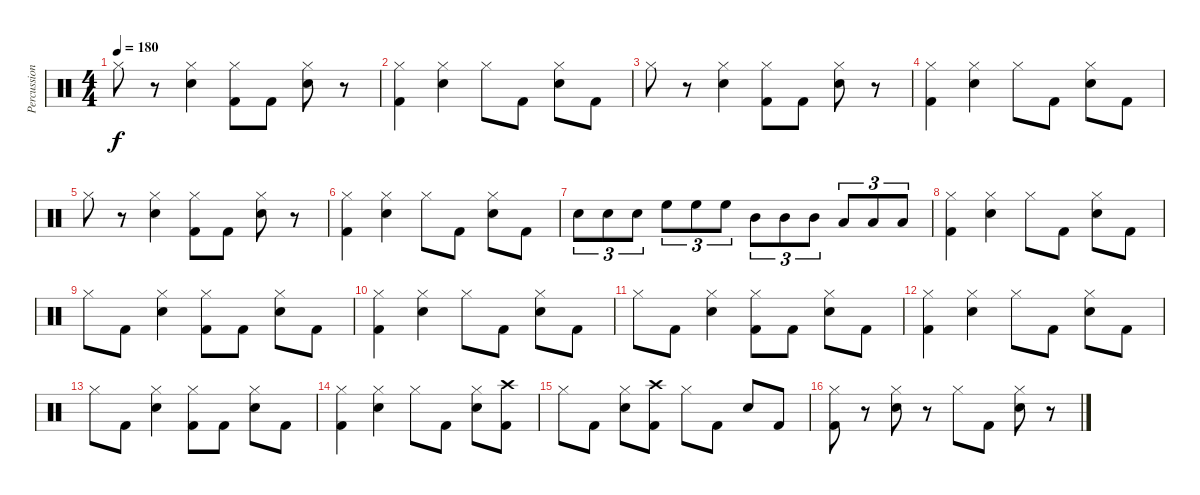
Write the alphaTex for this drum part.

\track ("Percussion" "Percussion") {instrument percussion}
\staff {score}
\articulation defaults
\ts (4 4)
\tempo 180
\clef neutral
\ks c "Hi-Hat (closed)".8{dy f}
r.8 ("Hi-Hat (closed)" "Snare (hit) 2").4 ("Hi-Hat (closed)" "Kick (hit) 2").8 "Kick (hit) 2".8 ("Hi-Hat (closed)" "Snare (hit) 2").8 r.8 |
("Hi-Hat (closed)" "Kick (hit) 2").4 ("Hi-Hat (closed)" "Snare (hit) 2").4 "Hi-Hat (closed)".8 "Kick (hit) 2".8 ("Hi-Hat (closed)" "Snare (hit) 2").8 "Kick (hit) 2".8 |
"Hi-Hat (closed)".8 r.8 ("Hi-Hat (closed)" "Snare (hit) 2").4 ("Hi-Hat (closed)" "Kick (hit) 2").8 "Kick (hit) 2".8 ("Hi-Hat (closed)" "Snare (hit) 2").8 r.8 |
("Hi-Hat (closed)" "Kick (hit) 2").4 ("Hi-Hat (closed)" "Snare (hit) 2").4 "Hi-Hat (closed)".8 "Kick (hit) 2".8 ("Hi-Hat (closed)" "Snare (hit) 2").8 "Kick (hit) 2".8 |
"Hi-Hat (closed)".8 r.8 ("Hi-Hat (closed)" "Snare (hit) 2").4 ("Hi-Hat (closed)" "Kick (hit) 2").8 "Kick (hit) 2".8 ("Hi-Hat (closed)" "Snare (hit) 2").8 r.8 |
("Hi-Hat (closed)" "Kick (hit) 2").4 ("Hi-Hat (closed)" "Snare (hit) 2").4 "Hi-Hat (closed)".8 "Kick (hit) 2".8 ("Hi-Hat (closed)" "Snare (hit) 2").8 "Kick (hit) 2".8 |
"Snare (hit) 2".8{tu (3 2)} "Snare (hit) 2".8{tu (3 2)} "Snare (hit) 2".8{tu (3 2)} "High Floor Tom (hit)".8{tu (3 2)} "High Floor Tom (hit)".8{tu (3 2)} "High Floor Tom (hit)".8{tu (3 2)} "Mid Tom (hit)".8{tu (3 2)} "Mid Tom (hit)".8{tu (3 2)} "Mid Tom (hit)".8{tu (3 2)} "Low Tom (hit)".8{tu (3 2)} "Low Tom (hit)".8{tu (3 2)} "Low Tom (hit)".8{tu (3 2)} |
("Hi-Hat (closed)" "Kick (hit) 2").4 ("Hi-Hat (closed)" "Snare (hit) 2").4 "Hi-Hat (closed)".8 "Kick (hit) 2".8 ("Hi-Hat (closed)" "Snare (hit) 2").8 "Kick (hit) 2".8 |
"Hi-Hat (closed)".8 "Kick (hit) 2".8 ("Hi-Hat (closed)" "Snare (hit) 2").4 ("Hi-Hat (closed)" "Kick (hit) 2").8 "Kick (hit) 2".8 ("Hi-Hat (closed)" "Snare (hit) 2").8 "Kick (hit) 2".8 |
("Hi-Hat (closed)" "Kick (hit) 2").4 ("Hi-Hat (closed)" "Snare (hit) 2").4 "Hi-Hat (closed)".8 "Kick (hit) 2".8 ("Hi-Hat (closed)" "Snare (hit) 2").8 "Kick (hit) 2".8 |
"Hi-Hat (closed)".8 "Kick (hit) 2".8 ("Hi-Hat (closed)" "Snare (hit) 2").4 ("Hi-Hat (closed)" "Kick (hit) 2").8 "Kick (hit) 2".8 ("Hi-Hat (closed)" "Snare (hit) 2").8 "Kick (hit) 2".8 |
("Hi-Hat (closed)" "Kick (hit) 2").4 ("Hi-Hat (closed)" "Snare (hit) 2").4 "Hi-Hat (closed)".8 "Kick (hit) 2".8 ("Hi-Hat (closed)" "Snare (hit) 2").8 "Kick (hit) 2".8 |
"Hi-Hat (closed)".8 "Kick (hit) 2".8 ("Hi-Hat (closed)" "Snare (hit) 2").4 ("Hi-Hat (closed)" "Kick (hit) 2").8 "Kick (hit) 2".8 ("Hi-Hat (closed)" "Snare (hit) 2").8 "Kick (hit) 2".8 |
("Hi-Hat (closed)" "Kick (hit) 2").4 ("Hi-Hat (closed)" "Snare (hit) 2").4 "Hi-Hat (closed)".8 "Kick (hit) 2".8 ("Hi-Hat (closed)" "Snare (hit) 2").8 ("Crash high (hit)" "Kick (hit) 2").8 |
"Hi-Hat (closed)".8 "Kick (hit) 2".8 ("Hi-Hat (closed)" "Snare (hit) 2").8 ("Crash high (hit)" "Kick (hit) 2").8 "Hi-Hat (closed)".8 "Kick (hit) 2".8 "Snare (hit) 2".8 "Kick (hit) 2".8 |
("Hi-Hat (closed)" "Kick (hit) 2").8 r.8 ("Hi-Hat (closed)" "Snare (hit) 2").8 r.8 "Hi-Hat (closed)".8 "Kick (hit) 2".8 ("Hi-Hat (closed)" "Snare (hit) 2").8 r.8
